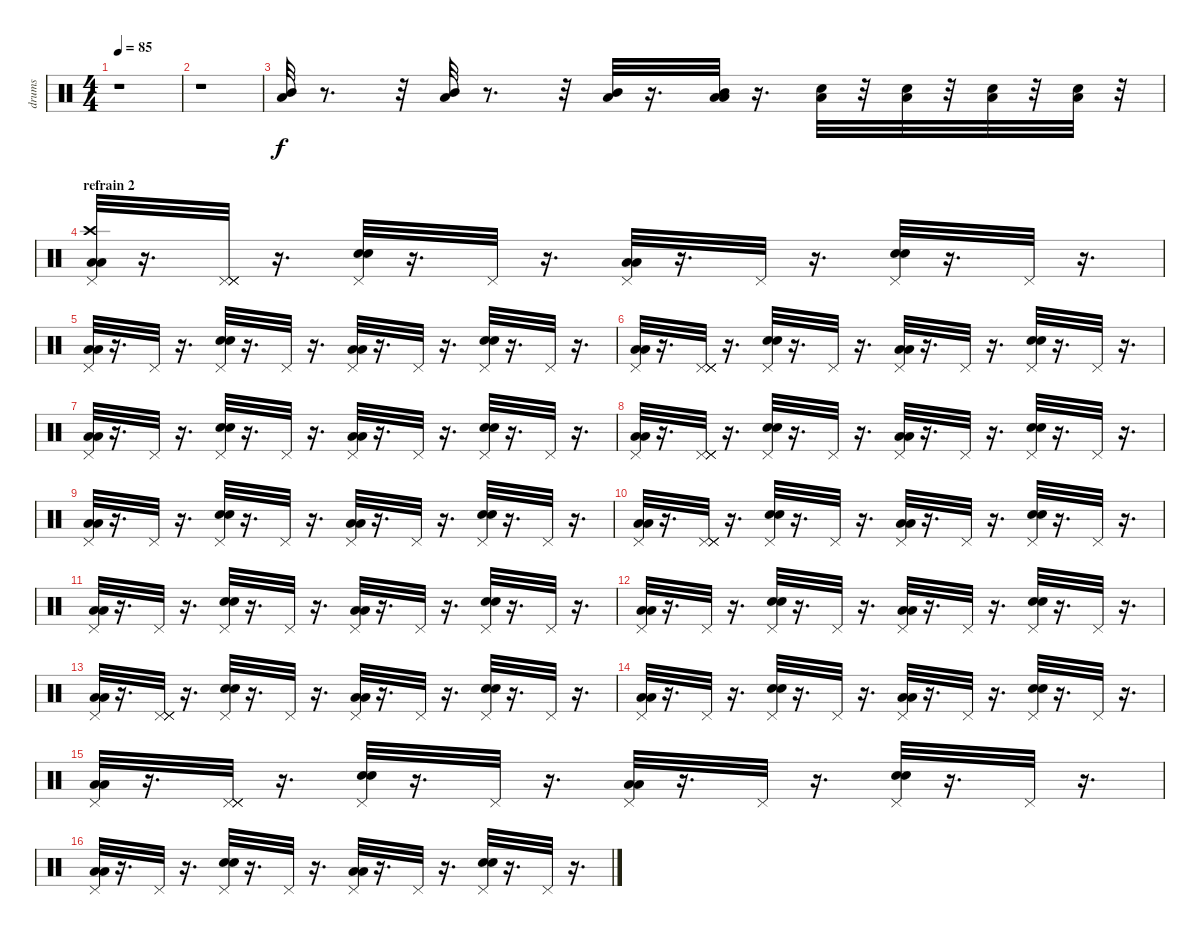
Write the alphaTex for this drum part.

\track ("drums" "drums") {instrument percussion}
\staff {score}
\articulation defaults
\ts (4 4)
\tempo 85
\clef neutral
\ks c
r.1{dy f} |
r.1 |
("Low Floor Tom (hit)" "Mid Tom (hit)").32 r.8{d} r.32 ("Low Floor Tom (hit)" "Mid Tom (hit)").32 r.8{d} r.32 ("Low Floor Tom (hit)" "Mid Tom (hit)").32 r.16{d} ("Low Floor Tom (hit)" "Low Tom (hit)" "Mid Tom (hit)").32 r.16{d} ("Low Floor Tom (hit)" "Snare (hit) 2").32 r.32 ("Low Floor Tom (hit)" "Snare (hit) 2").32 r.32 ("Low Floor Tom (hit)" "Snare (hit) 2").32 r.32 ("Low Floor Tom (hit)" "Snare (hit) 2").32 r.32 |
\section ("" "refrain 2")
("Crash high (hit)" "Pedal Hi-Hat (hit)" "Low Floor Tom (hit)" "Low Tom (hit)").32 r.16{d} ("Pedal Hi-Hat (hit)" "Pedal Hi-Hat (hit)" "Pedal Hi-Hat (hit)" "Pedal Hi-Hat (hit)").32 r.16{d} ("Pedal Hi-Hat (hit)" "Electric Snare (hit)" "Snare (hit) 2").32 r.16{d} "Pedal Hi-Hat (hit)".32 r.16{d} ("Pedal Hi-Hat (hit)" "Low Tom (hit)" "Low Floor Tom (hit)").32 r.16{d} "Pedal Hi-Hat (hit)".32 r.16{d} ("Pedal Hi-Hat (hit)" "Snare (hit) 2" "Electric Snare (hit)").32 r.16{d} "Pedal Hi-Hat (hit)".32 r.16{d} |
("Low Floor Tom (hit)" "Low Tom (hit)" "Pedal Hi-Hat (hit)").32 r.16{d} "Pedal Hi-Hat (hit)".32 r.16{d} ("Snare (hit) 2" "Electric Snare (hit)" "Pedal Hi-Hat (hit)").32 r.16{d} "Pedal Hi-Hat (hit)".32 r.16{d} ("Low Tom (hit)" "Low Floor Tom (hit)" "Pedal Hi-Hat (hit)").32 r.16{d} "Pedal Hi-Hat (hit)".32 r.16{d} ("Snare (hit) 2" "Electric Snare (hit)" "Pedal Hi-Hat (hit)").32 r.16{d} "Pedal Hi-Hat (hit)".32 r.16{d} |
("Pedal Hi-Hat (hit)" "Low Floor Tom (hit)" "Low Tom (hit)").32 r.16{d} ("Pedal Hi-Hat (hit)" "Pedal Hi-Hat (hit)" "Pedal Hi-Hat (hit)" "Pedal Hi-Hat (hit)").32 r.16{d} ("Pedal Hi-Hat (hit)" "Electric Snare (hit)" "Snare (hit) 2").32 r.16{d} "Pedal Hi-Hat (hit)".32 r.16{d} ("Pedal Hi-Hat (hit)" "Low Tom (hit)" "Low Floor Tom (hit)").32 r.16{d} "Pedal Hi-Hat (hit)".32 r.16{d} ("Pedal Hi-Hat (hit)" "Snare (hit) 2" "Electric Snare (hit)").32 r.16{d} "Pedal Hi-Hat (hit)".32 r.16{d} |
("Low Floor Tom (hit)" "Low Tom (hit)" "Pedal Hi-Hat (hit)").32 r.16{d} "Pedal Hi-Hat (hit)".32 r.16{d} ("Snare (hit) 2" "Electric Snare (hit)" "Pedal Hi-Hat (hit)").32 r.16{d} "Pedal Hi-Hat (hit)".32 r.16{d} ("Low Tom (hit)" "Low Floor Tom (hit)" "Pedal Hi-Hat (hit)").32 r.16{d} "Pedal Hi-Hat (hit)".32 r.16{d} ("Snare (hit) 2" "Electric Snare (hit)" "Pedal Hi-Hat (hit)").32 r.16{d} "Pedal Hi-Hat (hit)".32 r.16{d} |
("Pedal Hi-Hat (hit)" "Low Floor Tom (hit)" "Low Tom (hit)").32 r.16{d} ("Pedal Hi-Hat (hit)" "Pedal Hi-Hat (hit)" "Pedal Hi-Hat (hit)" "Pedal Hi-Hat (hit)").32 r.16{d} ("Pedal Hi-Hat (hit)" "Electric Snare (hit)" "Snare (hit) 2").32 r.16{d} "Pedal Hi-Hat (hit)".32 r.16{d} ("Pedal Hi-Hat (hit)" "Low Tom (hit)" "Low Floor Tom (hit)").32 r.16{d} "Pedal Hi-Hat (hit)".32 r.16{d} ("Pedal Hi-Hat (hit)" "Snare (hit) 2" "Electric Snare (hit)").32 r.16{d} "Pedal Hi-Hat (hit)".32 r.16{d} |
("Low Floor Tom (hit)" "Low Tom (hit)" "Pedal Hi-Hat (hit)").32 r.16{d} "Pedal Hi-Hat (hit)".32 r.16{d} ("Snare (hit) 2" "Electric Snare (hit)" "Pedal Hi-Hat (hit)").32 r.16{d} "Pedal Hi-Hat (hit)".32 r.16{d} ("Low Tom (hit)" "Low Floor Tom (hit)" "Pedal Hi-Hat (hit)").32 r.16{d} "Pedal Hi-Hat (hit)".32 r.16{d} ("Snare (hit) 2" "Electric Snare (hit)" "Pedal Hi-Hat (hit)").32 r.16{d} "Pedal Hi-Hat (hit)".32 r.16{d} |
("Pedal Hi-Hat (hit)" "Low Floor Tom (hit)" "Low Tom (hit)").32 r.16{d} ("Pedal Hi-Hat (hit)" "Pedal Hi-Hat (hit)" "Pedal Hi-Hat (hit)" "Pedal Hi-Hat (hit)").32 r.16{d} ("Pedal Hi-Hat (hit)" "Electric Snare (hit)" "Snare (hit) 2").32 r.16{d} "Pedal Hi-Hat (hit)".32 r.16{d} ("Pedal Hi-Hat (hit)" "Low Tom (hit)" "Low Floor Tom (hit)").32 r.16{d} "Pedal Hi-Hat (hit)".32 r.16{d} ("Pedal Hi-Hat (hit)" "Snare (hit) 2" "Electric Snare (hit)").32 r.16{d} "Pedal Hi-Hat (hit)".32 r.16{d} |
("Low Floor Tom (hit)" "Low Tom (hit)" "Pedal Hi-Hat (hit)").32 r.16{d} "Pedal Hi-Hat (hit)".32 r.16{d} ("Snare (hit) 2" "Electric Snare (hit)" "Pedal Hi-Hat (hit)").32 r.16{d} "Pedal Hi-Hat (hit)".32 r.16{d} ("Low Tom (hit)" "Low Floor Tom (hit)" "Pedal Hi-Hat (hit)").32 r.16{d} "Pedal Hi-Hat (hit)".32 r.16{d} ("Snare (hit) 2" "Electric Snare (hit)" "Pedal Hi-Hat (hit)").32 r.16{d} "Pedal Hi-Hat (hit)".32 r.16{d} |
("Low Floor Tom (hit)" "Low Tom (hit)" "Pedal Hi-Hat (hit)").32 r.16{d} "Pedal Hi-Hat (hit)".32 r.16{d} ("Snare (hit) 2" "Electric Snare (hit)" "Pedal Hi-Hat (hit)").32 r.16{d} "Pedal Hi-Hat (hit)".32 r.16{d} ("Low Tom (hit)" "Low Floor Tom (hit)" "Pedal Hi-Hat (hit)").32 r.16{d} "Pedal Hi-Hat (hit)".32 r.16{d} ("Snare (hit) 2" "Electric Snare (hit)" "Pedal Hi-Hat (hit)").32 r.16{d} "Pedal Hi-Hat (hit)".32 r.16{d} |
("Pedal Hi-Hat (hit)" "Low Floor Tom (hit)" "Low Tom (hit)").32 r.16{d} ("Pedal Hi-Hat (hit)" "Pedal Hi-Hat (hit)" "Pedal Hi-Hat (hit)" "Pedal Hi-Hat (hit)").32 r.16{d} ("Pedal Hi-Hat (hit)" "Electric Snare (hit)" "Snare (hit) 2").32 r.16{d} "Pedal Hi-Hat (hit)".32 r.16{d} ("Pedal Hi-Hat (hit)" "Low Tom (hit)" "Low Floor Tom (hit)").32 r.16{d} "Pedal Hi-Hat (hit)".32 r.16{d} ("Pedal Hi-Hat (hit)" "Snare (hit) 2" "Electric Snare (hit)").32 r.16{d} "Pedal Hi-Hat (hit)".32 r.16{d} |
("Low Floor Tom (hit)" "Low Tom (hit)" "Pedal Hi-Hat (hit)").32 r.16{d} "Pedal Hi-Hat (hit)".32 r.16{d} ("Snare (hit) 2" "Electric Snare (hit)" "Pedal Hi-Hat (hit)").32 r.16{d} "Pedal Hi-Hat (hit)".32 r.16{d} ("Low Tom (hit)" "Low Floor Tom (hit)" "Pedal Hi-Hat (hit)").32 r.16{d} "Pedal Hi-Hat (hit)".32 r.16{d} ("Snare (hit) 2" "Electric Snare (hit)" "Pedal Hi-Hat (hit)").32 r.16{d} "Pedal Hi-Hat (hit)".32 r.16{d} |
("Pedal Hi-Hat (hit)" "Low Floor Tom (hit)" "Low Tom (hit)").32 r.16{d} ("Pedal Hi-Hat (hit)" "Pedal Hi-Hat (hit)" "Pedal Hi-Hat (hit)" "Pedal Hi-Hat (hit)").32 r.16{d} ("Pedal Hi-Hat (hit)" "Electric Snare (hit)" "Snare (hit) 2").32 r.16{d} "Pedal Hi-Hat (hit)".32 r.16{d} ("Pedal Hi-Hat (hit)" "Low Tom (hit)" "Low Floor Tom (hit)").32 r.16{d} "Pedal Hi-Hat (hit)".32 r.16{d} ("Pedal Hi-Hat (hit)" "Snare (hit) 2" "Electric Snare (hit)").32 r.16{d} "Pedal Hi-Hat (hit)".32 r.16{d} |
("Low Floor Tom (hit)" "Low Tom (hit)" "Pedal Hi-Hat (hit)").32 r.16{d} "Pedal Hi-Hat (hit)".32 r.16{d} ("Snare (hit) 2" "Electric Snare (hit)" "Pedal Hi-Hat (hit)").32 r.16{d} "Pedal Hi-Hat (hit)".32 r.16{d} ("Low Tom (hit)" "Low Floor Tom (hit)" "Pedal Hi-Hat (hit)").32 r.16{d} "Pedal Hi-Hat (hit)".32 r.16{d} ("Snare (hit) 2" "Electric Snare (hit)" "Pedal Hi-Hat (hit)").32 r.16{d} "Pedal Hi-Hat (hit)".32 r.16{d}
